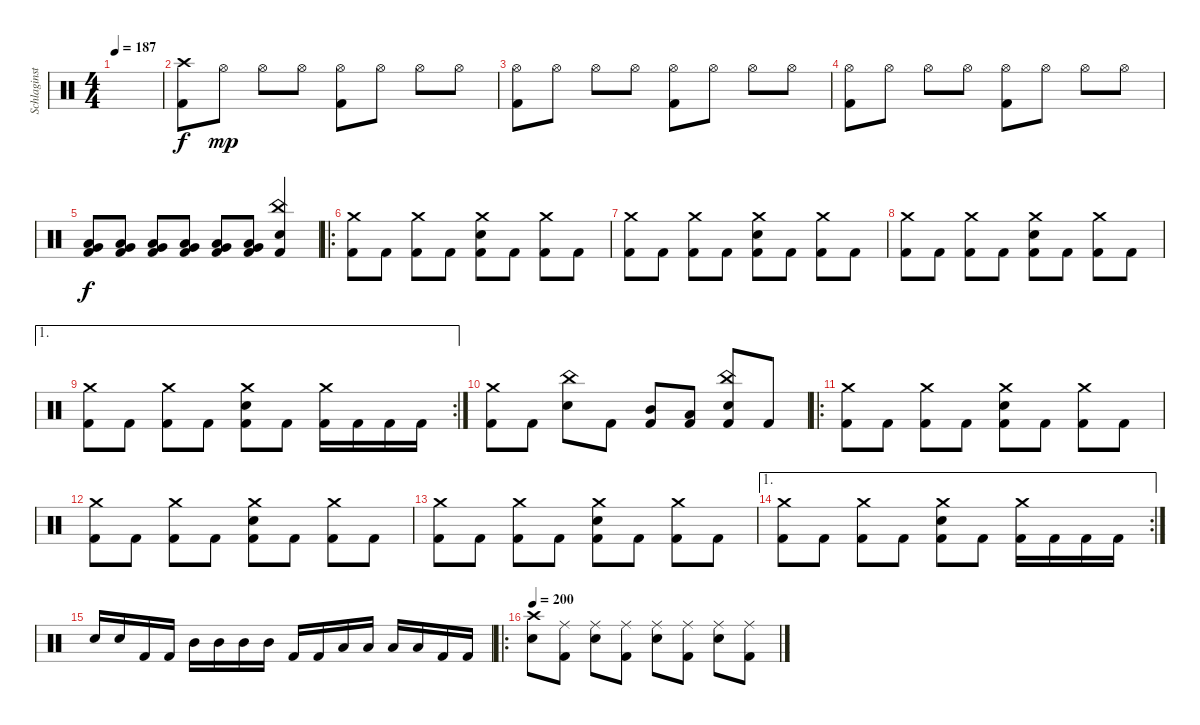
\track ("Schlaginstrumente - Auswahl" "Schlaginst") {instrument percussion}
\staff {score}
\articulation defaults
\ts (4 4)
\tempo 187
\clef neutral
\ks c
|
("Crash high (hit)" "Kick (hit) 2").8 "Hi-Hat (open)".8{dy mp} "Hi-Hat (open)".8 "Hi-Hat (open)".8 ("Hi-Hat (open)" "Kick (hit) 2").8 "Hi-Hat (open)".8 "Hi-Hat (open)".8 "Hi-Hat (open)".8 |
("Hi-Hat (open)" "Kick (hit) 2").8 "Hi-Hat (open)".8 "Hi-Hat (open)".8 "Hi-Hat (open)".8 ("Hi-Hat (open)" "Kick (hit) 2").8 "Hi-Hat (open)".8 "Hi-Hat (open)".8 "Hi-Hat (open)".8 |
("Hi-Hat (open)" "Kick (hit) 2").8 "Hi-Hat (open)".8 "Hi-Hat (open)".8 "Hi-Hat (open)".8 ("Hi-Hat (open)" "Kick (hit) 2").8 "Hi-Hat (open)".8 "Hi-Hat (open)".8 "Hi-Hat (open)".8 |
("Low Tom (hit)" "Very Low Tom (hit)" "Kick (hit) 2").8{dy f} ("Low Tom (hit)" "Very Low Tom (hit)" "Kick (hit) 2").8 ("Low Tom (hit)" "Very Low Tom (hit)" "Kick (hit) 2").8 ("Low Tom (hit)" "Very Low Tom (hit)" "Kick (hit) 2").8 ("Low Tom (hit)" "Very Low Tom (hit)" "Kick (hit) 2").8 ("Low Tom (hit)" "Very Low Tom (hit)" "Kick (hit) 2").8 ("China (hit)" "Electric Snare (hit)" "Kick (hit) 2").4 |
\ro
("Crash medium (hit)" "Kick (hit) 2").8 "Kick (hit) 2".8 ("Crash medium (hit)" "Kick (hit) 2").8 "Kick (hit) 2".8 ("Crash medium (hit)" "Electric Snare (hit)" "Kick (hit) 2").8 "Kick (hit) 2".8 ("Crash medium (hit)" "Kick (hit) 2").8 "Kick (hit) 2".8 |
("Crash medium (hit)" "Kick (hit) 2").8 "Kick (hit) 2".8 ("Crash medium (hit)" "Kick (hit) 2").8 "Kick (hit) 2".8 ("Crash medium (hit)" "Electric Snare (hit)" "Kick (hit) 2").8 "Kick (hit) 2".8 ("Crash medium (hit)" "Kick (hit) 2").8 "Kick (hit) 2".8 |
("Crash medium (hit)" "Kick (hit) 2").8 "Kick (hit) 2".8 ("Crash medium (hit)" "Kick (hit) 2").8 "Kick (hit) 2".8 ("Crash medium (hit)" "Electric Snare (hit)" "Kick (hit) 2").8 "Kick (hit) 2".8 ("Crash medium (hit)" "Kick (hit) 2").8 "Kick (hit) 2".8 |
\ae 1
\rc 2
("Crash medium (hit)" "Kick (hit) 2").8 "Kick (hit) 2".8 ("Crash medium (hit)" "Kick (hit) 2").8 "Kick (hit) 2".8 ("Crash medium (hit)" "Electric Snare (hit)" "Kick (hit) 2").8 "Kick (hit) 2".8 ("Crash medium (hit)" "Kick (hit) 2").16 "Kick (hit) 2".16 "Kick (hit) 2".16 "Kick (hit) 2".16 |
("Crash medium (hit)" "Kick (hit) 2").8 "Kick (hit) 2".8 ("China (hit)" "Electric Snare (hit)").8 "Kick (hit) 2".8 ("Mid Tom (hit)" "Kick (hit) 2").8 ("Low Tom (hit)" "Kick (hit) 2").8 ("China (hit)" "Electric Snare (hit)" "Kick (hit) 2").8 "Kick (hit) 2".8 |
\ro
("Crash medium (hit)" "Kick (hit) 2").8 "Kick (hit) 2".8 ("Crash medium (hit)" "Kick (hit) 2").8 "Kick (hit) 2".8 ("Crash medium (hit)" "Electric Snare (hit)" "Kick (hit) 2").8 "Kick (hit) 2".8 ("Crash medium (hit)" "Kick (hit) 2").8 "Kick (hit) 2".8 |
("Crash medium (hit)" "Kick (hit) 2").8 "Kick (hit) 2".8 ("Crash medium (hit)" "Kick (hit) 2").8 "Kick (hit) 2".8 ("Crash medium (hit)" "Electric Snare (hit)" "Kick (hit) 2").8 "Kick (hit) 2".8 ("Crash medium (hit)" "Kick (hit) 2").8 "Kick (hit) 2".8 |
("Crash medium (hit)" "Kick (hit) 2").8 "Kick (hit) 2".8 ("Crash medium (hit)" "Kick (hit) 2").8 "Kick (hit) 2".8 ("Crash medium (hit)" "Electric Snare (hit)" "Kick (hit) 2").8 "Kick (hit) 2".8 ("Crash medium (hit)" "Kick (hit) 2").8 "Kick (hit) 2".8 |
\ae 1
\rc 2
("Crash medium (hit)" "Kick (hit) 2").8 "Kick (hit) 2".8 ("Crash medium (hit)" "Kick (hit) 2").8 "Kick (hit) 2".8 ("Crash medium (hit)" "Electric Snare (hit)" "Kick (hit) 2").8 "Kick (hit) 2".8 ("Crash medium (hit)" "Kick (hit) 2").16 "Kick (hit) 2".16 "Kick (hit) 2".16 "Kick (hit) 2".16 |
"Electric Snare (hit)".16 "Electric Snare (hit)".16 "Kick (hit) 2".16 "Kick (hit) 2".16 "Mid Tom (hit)".16 "Mid Tom (hit)".16 "Mid Tom (hit)".16 "Mid Tom (hit)".16 "Kick (hit) 2".16 "Kick (hit) 2".16 "Low Tom (hit)".16 "Low Tom (hit)".16 "Low Tom (hit)".16 "Low Tom (hit)".16 "Kick (hit) 2".16 "Kick (hit) 2".16 |
\ro
\tempo 200
("Crash high (hit)" "Electric Snare (hit)").8 ("Ride (middle)" "Kick (hit) 2").8 ("Ride (middle)" "Electric Snare (hit)").8 ("Ride (middle)" "Kick (hit) 2").8 ("Ride (middle)" "Electric Snare (hit)").8 ("Ride (middle)" "Kick (hit) 2").8 ("Ride (middle)" "Electric Snare (hit)").8 ("Ride (middle)" "Kick (hit) 2").8
